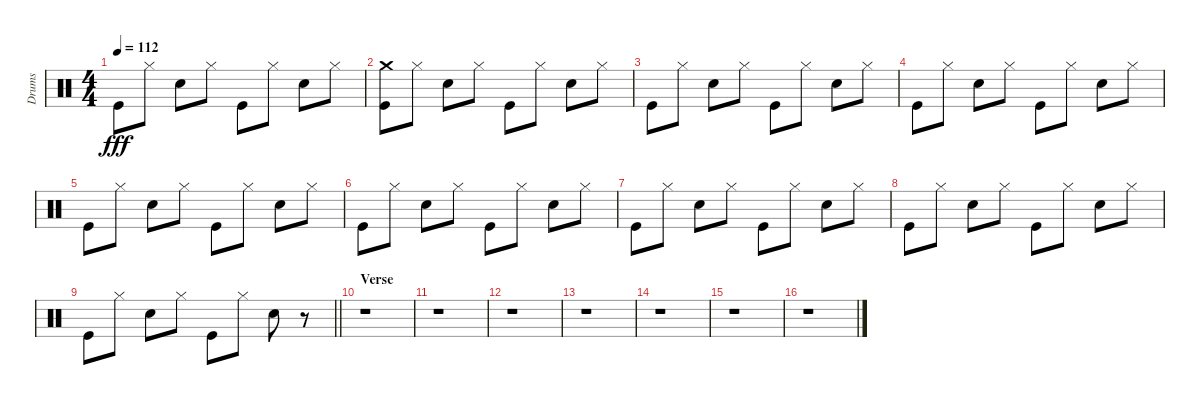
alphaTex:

\track ("Drums" "Drums") {instrument percussion}
\staff {score}
\articulation defaults
\ts (4 4)
\tempo 112
\clef neutral
\ks c "Kick (hit)".8{dy fff} "Hi-Hat (closed)".8 "Snare (hit) 2".8 "Hi-Hat (closed)".8 "Kick (hit)".8 "Hi-Hat (closed)".8 "Snare (hit) 2".8 "Hi-Hat (closed)".8
|
("Crash medium (hit)" "Kick (hit)").8 "Hi-Hat (closed)".8 "Snare (hit) 2".8 "Hi-Hat (closed)".8 "Kick (hit)".8 "Hi-Hat (closed)".8 "Snare (hit) 2".8 "Hi-Hat (closed)".8 |
"Kick (hit)".8 "Hi-Hat (closed)".8 "Snare (hit) 2".8 "Hi-Hat (closed)".8 "Kick (hit)".8 "Hi-Hat (closed)".8 "Snare (hit) 2".8 "Hi-Hat (closed)".8 |
"Kick (hit)".8 "Hi-Hat (closed)".8 "Snare (hit) 2".8 "Hi-Hat (closed)".8 "Kick (hit)".8 "Hi-Hat (closed)".8 "Snare (hit) 2".8 "Hi-Hat (closed)".8 |
"Kick (hit)".8 "Hi-Hat (closed)".8 "Snare (hit) 2".8 "Hi-Hat (closed)".8 "Kick (hit)".8 "Hi-Hat (closed)".8 "Snare (hit) 2".8 "Hi-Hat (closed)".8 |
"Kick (hit)".8 "Hi-Hat (closed)".8 "Snare (hit) 2".8 "Hi-Hat (closed)".8 "Kick (hit)".8 "Hi-Hat (closed)".8 "Snare (hit) 2".8 "Hi-Hat (closed)".8 |
"Kick (hit)".8 "Hi-Hat (closed)".8 "Snare (hit) 2".8 "Hi-Hat (closed)".8 "Kick (hit)".8 "Hi-Hat (closed)".8 "Snare (hit) 2".8 "Hi-Hat (closed)".8 |
"Kick (hit)".8 "Hi-Hat (closed)".8 "Snare (hit) 2".8 "Hi-Hat (closed)".8 "Kick (hit)".8 "Hi-Hat (closed)".8 "Snare (hit) 2".8 "Hi-Hat (closed)".8 |
\barLineRight lightlight "Kick (hit)".8 "Hi-Hat (closed)".8 "Snare (hit) 2".8 "Hi-Hat (closed)".8 "Kick (hit)".8 "Hi-Hat (closed)".8 "Snare (hit) 2".8
r.8 |
\section ("" "Verse")
r.1 |
r.1 |
r.1 |
r.1 |
r.1 |
r.1 |
r.1
